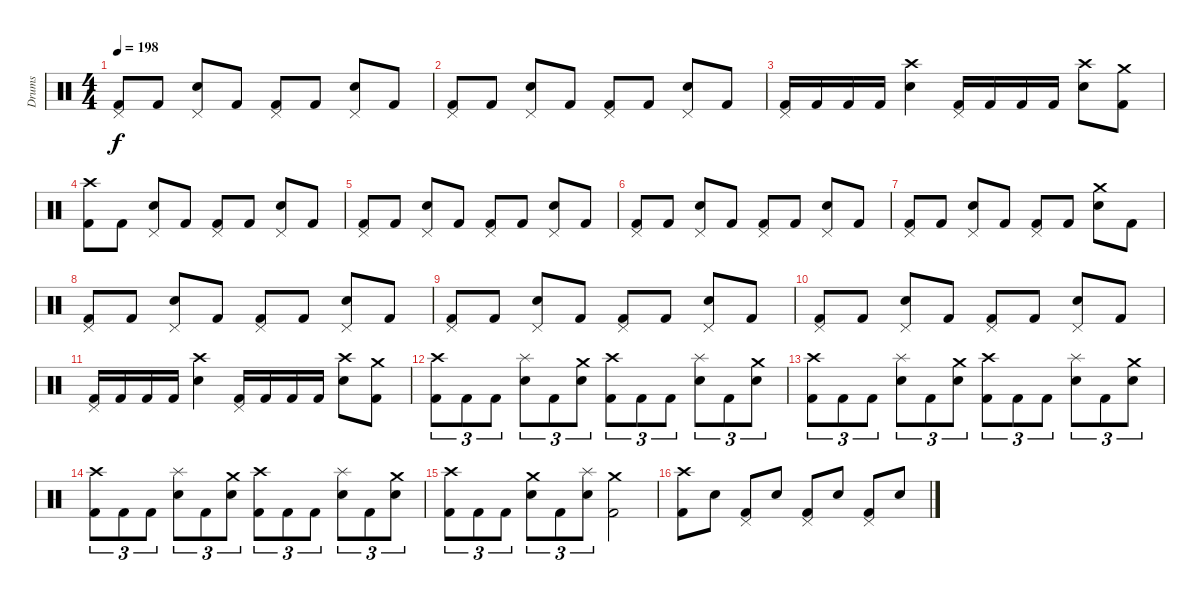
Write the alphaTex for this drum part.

\track ("Drums" "Drums") {instrument percussion}
\staff {score}
\articulation defaults
\ts (4 4)
\tempo 198
\clef neutral
\ks c
("Pedal Hi-Hat (hit)" "Kick (hit) 2").8{dy f} "Kick (hit) 2".8 ("Pedal Hi-Hat (hit)" "Electric Snare (hit)").8 "Kick (hit) 2".8 ("Pedal Hi-Hat (hit)" "Kick (hit) 2").8 "Kick (hit) 2".8 ("Pedal Hi-Hat (hit)" "Electric Snare (hit)").8 "Kick (hit) 2".8 |
("Pedal Hi-Hat (hit)" "Kick (hit) 2").8 "Kick (hit) 2".8 ("Pedal Hi-Hat (hit)" "Electric Snare (hit)").8 "Kick (hit) 2".8 ("Pedal Hi-Hat (hit)" "Kick (hit) 2").8 "Kick (hit) 2".8 ("Pedal Hi-Hat (hit)" "Electric Snare (hit)").8 "Kick (hit) 2".8 |
("Pedal Hi-Hat (hit)" "Kick (hit) 2").16 "Kick (hit) 2".16 "Kick (hit) 2".16 "Kick (hit) 2".16 ("Crash high (hit)" "Electric Snare (hit)").4 ("Pedal Hi-Hat (hit)" "Kick (hit) 2").16 "Kick (hit) 2".16 "Kick (hit) 2".16 "Kick (hit) 2".16 ("Crash high (hit)" "Electric Snare (hit)").8 ("Crash medium (hit)" "Kick (hit) 2").8 |
("Crash high (hit)" "Kick (hit) 2").8 "Kick (hit) 2".8 ("Pedal Hi-Hat (hit)" "Electric Snare (hit)").8 "Kick (hit) 2".8 ("Pedal Hi-Hat (hit)" "Kick (hit) 2").8 "Kick (hit) 2".8 ("Pedal Hi-Hat (hit)" "Electric Snare (hit)").8 "Kick (hit) 2".8 |
("Pedal Hi-Hat (hit)" "Kick (hit) 2").8 "Kick (hit) 2".8 ("Pedal Hi-Hat (hit)" "Electric Snare (hit)").8 "Kick (hit) 2".8 ("Pedal Hi-Hat (hit)" "Kick (hit) 2").8 "Kick (hit) 2".8 ("Pedal Hi-Hat (hit)" "Electric Snare (hit)").8 "Kick (hit) 2".8 |
("Pedal Hi-Hat (hit)" "Kick (hit) 2").8 "Kick (hit) 2".8 ("Pedal Hi-Hat (hit)" "Electric Snare (hit)").8 "Kick (hit) 2".8 ("Pedal Hi-Hat (hit)" "Kick (hit) 2").8 "Kick (hit) 2".8 ("Pedal Hi-Hat (hit)" "Electric Snare (hit)").8 "Kick (hit) 2".8 |
("Pedal Hi-Hat (hit)" "Kick (hit) 2").8 "Kick (hit) 2".8 ("Pedal Hi-Hat (hit)" "Electric Snare (hit)").8 "Kick (hit) 2".8 ("Pedal Hi-Hat (hit)" "Kick (hit) 2").8 "Kick (hit) 2".8 ("Crash medium (hit)" "Electric Snare (hit)").8 "Kick (hit) 2".8 |
("Pedal Hi-Hat (hit)" "Kick (hit) 2").8 "Kick (hit) 2".8 ("Pedal Hi-Hat (hit)" "Electric Snare (hit)").8 "Kick (hit) 2".8 ("Pedal Hi-Hat (hit)" "Kick (hit) 2").8 "Kick (hit) 2".8 ("Pedal Hi-Hat (hit)" "Electric Snare (hit)").8 "Kick (hit) 2".8 |
("Pedal Hi-Hat (hit)" "Kick (hit) 2").8 "Kick (hit) 2".8 ("Pedal Hi-Hat (hit)" "Electric Snare (hit)").8 "Kick (hit) 2".8 ("Pedal Hi-Hat (hit)" "Kick (hit) 2").8 "Kick (hit) 2".8 ("Pedal Hi-Hat (hit)" "Electric Snare (hit)").8 "Kick (hit) 2".8 |
("Pedal Hi-Hat (hit)" "Kick (hit) 2").8 "Kick (hit) 2".8 ("Pedal Hi-Hat (hit)" "Electric Snare (hit)").8 "Kick (hit) 2".8 ("Pedal Hi-Hat (hit)" "Kick (hit) 2").8 "Kick (hit) 2".8 ("Pedal Hi-Hat (hit)" "Electric Snare (hit)").8 "Kick (hit) 2".8 |
("Pedal Hi-Hat (hit)" "Kick (hit) 2").16 "Kick (hit) 2".16 "Kick (hit) 2".16 "Kick (hit) 2".16 ("Crash high (hit)" "Electric Snare (hit)").4 ("Pedal Hi-Hat (hit)" "Kick (hit) 2").16 "Kick (hit) 2".16 "Kick (hit) 2".16 "Kick (hit) 2".16 ("Crash high (hit)" "Electric Snare (hit)").8 ("Crash medium (hit)" "Kick (hit) 2").8 |
("Crash high (hit)" "Kick (hit) 2").8{tu (3 2)} "Kick (hit) 2".8{tu (3 2)} "Kick (hit) 2".8{tu (3 2)} ("Splash (hit)" "Electric Snare (hit)").8{tu (3 2)} "Kick (hit) 2".8{tu (3 2)} ("Crash medium (hit)" "Electric Snare (hit)").8{tu (3 2)} ("Crash high (hit)" "Kick (hit) 2").8{tu (3 2)} "Kick (hit) 2".8{tu (3 2)} "Kick (hit) 2".8{tu (3 2)} ("Splash (hit)" "Electric Snare (hit)").8{tu (3 2)} "Kick (hit) 2".8{tu (3 2)} ("Crash medium (hit)" "Electric Snare (hit)").8{tu (3 2)} |
("Crash high (hit)" "Kick (hit) 2").8{tu (3 2)} "Kick (hit) 2".8{tu (3 2)} "Kick (hit) 2".8{tu (3 2)} ("Splash (hit)" "Electric Snare (hit)").8{tu (3 2)} "Kick (hit) 2".8{tu (3 2)} ("Crash medium (hit)" "Electric Snare (hit)").8{tu (3 2)} ("Crash high (hit)" "Kick (hit) 2").8{tu (3 2)} "Kick (hit) 2".8{tu (3 2)} "Kick (hit) 2".8{tu (3 2)} ("Splash (hit)" "Electric Snare (hit)").8{tu (3 2)} "Kick (hit) 2".8{tu (3 2)} ("Crash medium (hit)" "Electric Snare (hit)").8{tu (3 2)} |
("Crash high (hit)" "Kick (hit) 2").8{tu (3 2)} "Kick (hit) 2".8{tu (3 2)} "Kick (hit) 2".8{tu (3 2)} ("Splash (hit)" "Electric Snare (hit)").8{tu (3 2)} "Kick (hit) 2".8{tu (3 2)} ("Crash medium (hit)" "Electric Snare (hit)").8{tu (3 2)} ("Crash high (hit)" "Kick (hit) 2").8{tu (3 2)} "Kick (hit) 2".8{tu (3 2)} "Kick (hit) 2".8{tu (3 2)} ("Splash (hit)" "Electric Snare (hit)").8{tu (3 2)} "Kick (hit) 2".8{tu (3 2)} ("Crash medium (hit)" "Electric Snare (hit)").8{tu (3 2)} |
("Crash high (hit)" "Kick (hit) 2").8{tu (3 2)} "Kick (hit) 2".8{tu (3 2)} "Kick (hit) 2".8{tu (3 2)} ("Crash medium (hit)" "Electric Snare (hit)").8{tu (3 2)} "Kick (hit) 2".8{tu (3 2)} ("Splash (hit)" "Electric Snare (hit)").8{tu (3 2)} ("Crash medium (hit)" "Kick (hit) 2").2 |
("Crash high (hit)" "Kick (hit) 2").8 "Electric Snare (hit)".8 ("Pedal Hi-Hat (hit)" "Kick (hit) 2").8 "Electric Snare (hit)".8 ("Pedal Hi-Hat (hit)" "Kick (hit) 2").8 "Electric Snare (hit)".8 ("Pedal Hi-Hat (hit)" "Kick (hit) 2").8 "Electric Snare (hit)".8
